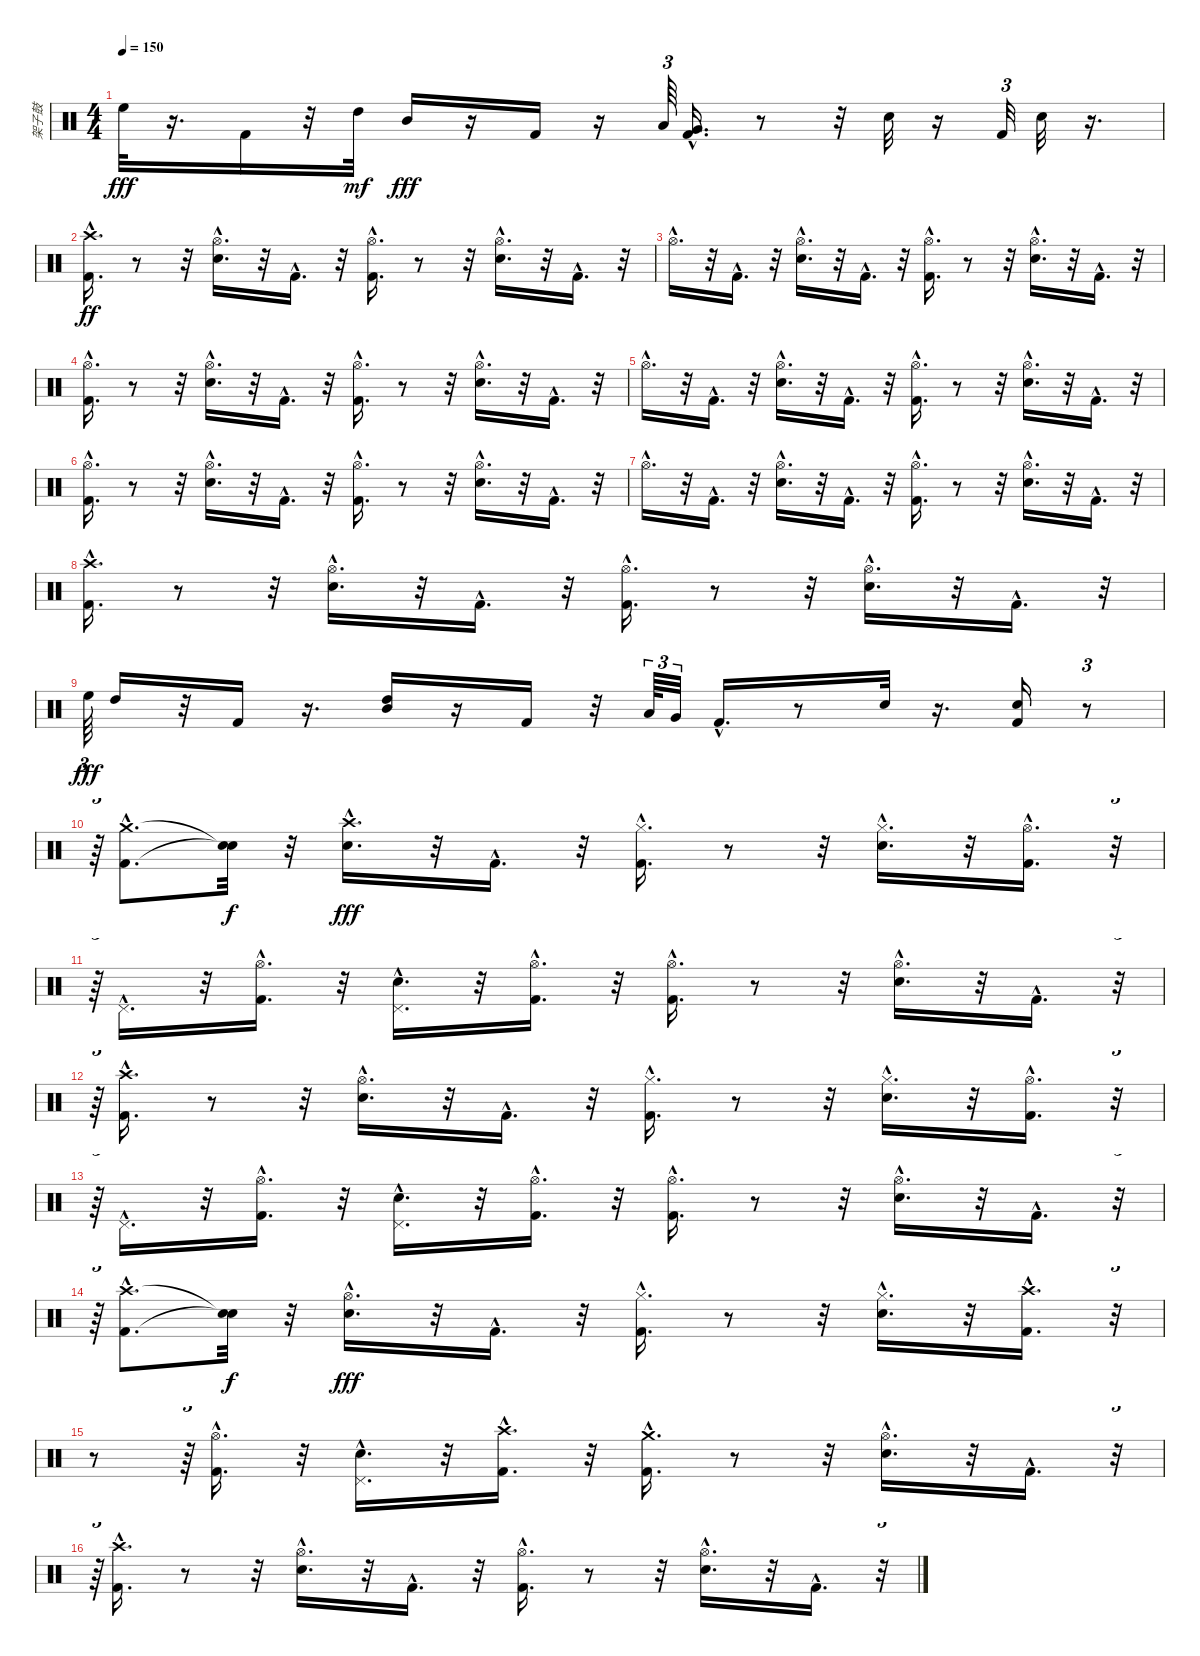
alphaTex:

\track ("架子鼓" "架子鼓") {instrument percussion}
\staff {score}
\articulation defaults
\ts (4 4)
\tempo 150
\clef neutral
\ks c "High Floor Tom (hit)".32{dy fff}
r.16{d} "Kick (hit) 2".16 r.32 "High Tom (hit)".32{dy mf} "Mid Tom (hit)".16{dy fff} r.16 "Kick (hit) 2".16 r.16 "Low Tom (hit)".64{tu (3 2)} ("Kick (hit) 2"{hac} "Very Low Tom (hit)").16{d} r.8 r.32 "Snare (hit) 2".32 r.16 "Kick (hit) 2".32{tu (3 2)} "Snare (hit) 2".32 r.16{d} |
("Kick (hit) 2"{hac} "Crash high (hit)"{hac}).16{d dy ff} r.8 r.32 ("Snare (hit) 2"{hac} "Hi-Hat (open)"{hac}).16{d} r.32 "Kick (hit) 2"{hac}.16{d} r.32 ("Kick (hit) 2"{hac} "Hi-Hat (open)"{hac}).16{d} r.8 r.32 ("Hi-Hat (open)"{hac} "Snare (hit) 2"{hac}).16{d} r.32 "Kick (hit) 2"{hac}.16{d} r.32 |
"Hi-Hat (open)"{hac}.16{d} r.32 "Kick (hit) 2"{hac}.16{d} r.32 ("Hi-Hat (open)"{hac} "Snare (hit) 2"{hac}).16{d} r.32 "Kick (hit) 2"{hac}.16{d} r.32 ("Hi-Hat (open)"{hac} "Kick (hit) 2"{hac}).16{d} r.8 r.32 ("Snare (hit) 2"{hac} "Hi-Hat (open)"{hac}).16{d} r.32 "Kick (hit) 2"{hac}.16{d} r.32 |
("Hi-Hat (open)"{hac} "Kick (hit) 2"{hac}).16{d} r.8 r.32 ("Snare (hit) 2"{hac} "Hi-Hat (open)"{hac}).16{d} r.32 "Kick (hit) 2"{hac}.16{d} r.32 ("Kick (hit) 2"{hac} "Hi-Hat (open)"{hac}).16{d} r.8 r.32 ("Snare (hit) 2"{hac} "Hi-Hat (open)"{hac}).16{d} r.32 "Kick (hit) 2"{hac}.16{d} r.32 |
"Hi-Hat (open)"{hac}.16{d} r.32 "Kick (hit) 2"{hac}.16{d} r.32 ("Snare (hit) 2"{hac} "Hi-Hat (open)"{hac}).16{d} r.32 "Kick (hit) 2"{hac}.16{d} r.32 ("Kick (hit) 2"{hac} "Hi-Hat (open)"{hac}).16{d} r.8 r.32 ("Snare (hit) 2"{hac} "Hi-Hat (open)"{hac}).16{d} r.32 "Kick (hit) 2"{hac}.16{d} r.32 |
("Hi-Hat (open)"{hac} "Kick (hit) 2"{hac}).16{d} r.8 r.32 ("Snare (hit) 2"{hac} "Hi-Hat (open)"{hac}).16{d} r.32 "Kick (hit) 2"{hac}.16{d} r.32 ("Kick (hit) 2"{hac} "Hi-Hat (open)"{hac}).16{d} r.8 r.32 ("Snare (hit) 2"{hac} "Hi-Hat (open)"{hac}).16{d} r.32 "Kick (hit) 2"{hac}.16{d} r.32 |
"Hi-Hat (open)"{hac}.16{d} r.32 "Kick (hit) 2"{hac}.16{d} r.32 ("Snare (hit) 2"{hac} "Hi-Hat (open)"{hac}).16{d} r.32 "Kick (hit) 2"{hac}.16{d} r.32 ("Kick (hit) 2"{hac} "Hi-Hat (open)"{hac}).16{d} r.8 r.32 ("Snare (hit) 2"{hac} "Hi-Hat (open)"{hac}).16{d} r.32 "Kick (hit) 2"{hac}.16{d} r.32 |
("Kick (hit) 2"{hac} "Crash high (hit)"{hac}).16{d} r.8 r.32 ("Snare (hit) 2"{hac} "Hi-Hat (open)"{hac}).16{d} r.32 "Kick (hit) 2"{hac}.16{d} r.32 ("Kick (hit) 2"{hac} "Hi-Hat (open)"{hac}).16{d} r.8 r.32 ("Hi-Hat (open)"{hac} "Snare (hit) 2"{hac}).16{d} r.32 "Kick (hit) 2"{hac}.16{d} r.32 |
"High Floor Tom (hit)".64{tu (3 2) dy fff} "High Tom (hit)".16 r.32 "Kick (hit) 2".16 r.16{d} ("High Tom (hit)" "Mid Tom (hit)").16 r.16 "Kick (hit) 2".16 r.32 "Low Tom (hit)".64{tu (3 2)} "Very Low Tom (hit)".32{tu (3 2)} "Kick (hit) 2"{hac}.16{d} r.8 "Snare (hit) 2".32 r.16{d} ("Snare (hit) 2" "Kick (hit) 2").16 r.8{tu (3 2)} |
r.64{tu (3 2)} ("Crash medium (hit)"{hac} "Kick (hit) 2"{hac}).8{d} ("Snare (hit)"{t} "Snare (hit)"{t}).32{dy f} r.32 ("Electric Snare (hit)"{hac} "Crash high (hit)"{hac}).16{d dy fff} r.32 "Kick (hit) 2"{hac}.16{d} r.32 ("Kick (hit) 2"{hac} "Hi-Hat (closed)"{hac}).16{d} r.8 r.32 ("Electric Snare (hit)"{hac} "Hi-Hat (closed)"{hac}).16{d} r.32 ("Kick (hit) 2"{hac} "Hi-Hat (open)"{hac}).16{d} r.32{tu (3 2)} |
r.64{tu (3 2)} "Pedal Hi-Hat (hit)"{hac}.16{d} r.32 ("Hi-Hat (open)"{hac} "Kick (hit) 2"{hac}).16{d} r.32 ("Electric Snare (hit)"{hac} "Pedal Hi-Hat (hit)"{hac}).16{d} r.32 ("Kick (hit) 2"{hac} "Hi-Hat (open)"{hac}).16{d} r.32 ("Hi-Hat (open)"{hac} "Kick (hit) 2"{hac}).16{d} r.8 r.32 ("Hi-Hat (open)"{hac} "Electric Snare (hit)"{hac}).16{d} r.32 "Kick (hit) 2"{hac}.16{d} r.32{tu (3 2)} |
r.64{tu (3 2)} ("Crash high (hit)"{hac} "Kick (hit) 2"{hac}).16{d} r.8 r.32 ("Electric Snare (hit)"{hac} "Hi-Hat (open)"{hac}).16{d} r.32 "Kick (hit) 2"{hac}.16{d} r.32 ("Kick (hit) 2"{hac} "Hi-Hat (closed)"{hac}).16{d} r.8 r.32 ("Hi-Hat (closed)"{hac} "Electric Snare (hit)"{hac}).16{d} r.32 ("Kick (hit) 2"{hac} "Hi-Hat (open)"{hac}).16{d} r.32{tu (3 2)} |
r.64{tu (3 2)} "Pedal Hi-Hat (hit)"{hac}.16{d} r.32 ("Kick (hit) 2"{hac} "Hi-Hat (open)"{hac}).16{d} r.32 ("Electric Snare (hit)"{hac} "Pedal Hi-Hat (hit)"{hac}).16{d} r.32 ("Kick (hit) 2"{hac} "Hi-Hat (open)"{hac}).16{d} r.32 ("Kick (hit) 2"{hac} "Hi-Hat (open)"{hac}).16{d} r.8 r.32 ("Electric Snare (hit)"{hac} "Hi-Hat (open)"{hac}).16{d} r.32 "Kick (hit) 2"{hac}.16{d} r.32{tu (3 2)} |
r.64{tu (3 2)} ("Kick (hit) 2"{hac} "Crash high (hit)"{hac}).8{d} ("Snare (hit)"{t} "Snare (hit)"{t}).32{dy f} r.32 ("Electric Snare (hit)"{hac} "Hi-Hat (open)"{hac}).16{d dy fff} r.32 "Kick (hit) 2"{hac}.16{d} r.32 ("Kick (hit) 2"{hac} "Hi-Hat (closed)"{hac}).16{d} r.8 r.32 ("Hi-Hat (closed)"{hac} "Electric Snare (hit)"{hac}).16{d} r.32 ("Kick (hit) 2"{hac} "Crash high (hit)"{hac}).16{d} r.32{tu (3 2)} |
r.8 r.64{tu (3 2)} ("Kick (hit) 2"{hac} "Hi-Hat (open)"{hac}).16{d} r.32 ("Electric Snare (hit)"{hac} "Pedal Hi-Hat (hit)"{hac}).16{d} r.32 ("Crash high (hit)"{hac} "Kick (hit) 2"{hac}).16{d} r.32 ("Crash medium (hit)"{hac} "Kick (hit) 2"{hac}).16{d} r.8 r.32 ("Electric Snare (hit)"{hac} "Hi-Hat (open)"{hac}).16{d} r.32 "Kick (hit) 2"{hac}.16{d} r.32{tu (3 2)} |
r.64{tu (3 2)} ("Kick (hit) 2"{hac} "Crash high (hit)"{hac}).16{d} r.8 r.32 ("Snare (hit) 2"{hac} "Hi-Hat (open)"{hac}).16{d} r.32 "Kick (hit) 2"{hac}.16{d} r.32 ("Kick (hit) 2"{hac} "Hi-Hat (open)"{hac}).16{d} r.8 r.32 ("Snare (hit) 2"{hac} "Hi-Hat (open)"{hac}).16{d} r.32 "Kick (hit) 2"{hac}.16{d} r.32{tu (3 2)}
